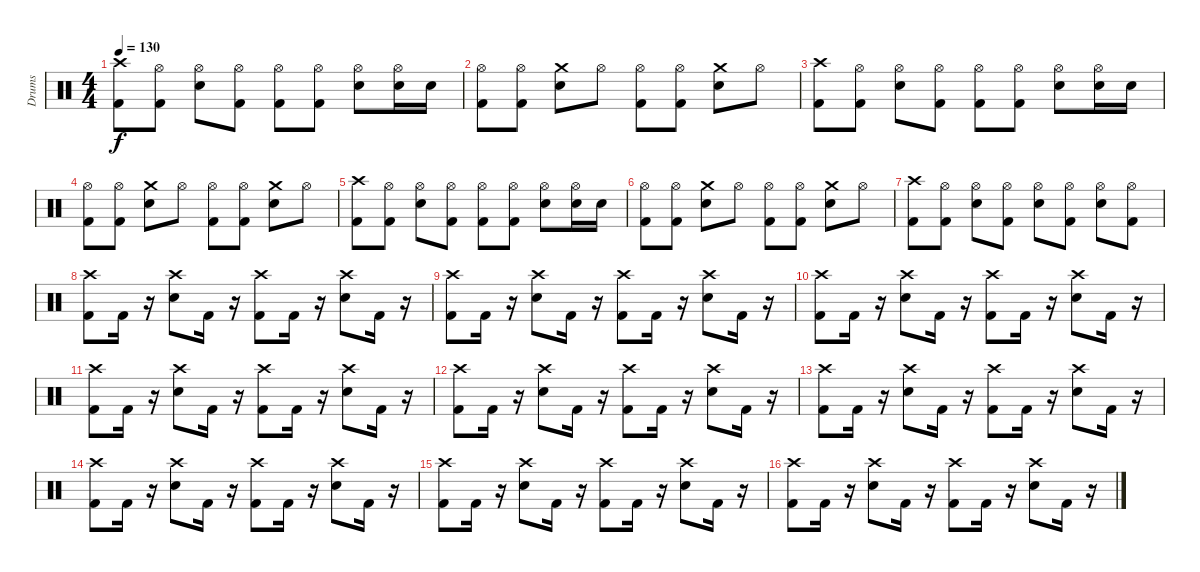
\track ("Drums" "Drums") {instrument percussion}
\staff {score}
\articulation defaults
\ts (4 4)
\tempo 130
\clef neutral
\ks c
("Kick (hit) 2" "Crash high (hit)").8{dy f} ("Kick (hit) 2" "Hi-Hat (open)").8 ("Electric Snare (hit)" "Hi-Hat (open)").8 ("Kick (hit) 2" "Hi-Hat (open)").8 ("Kick (hit) 2" "Hi-Hat (open)").8 ("Kick (hit) 2" "Hi-Hat (open)").8 ("Electric Snare (hit)" "Hi-Hat (open)").8 ("Electric Snare (hit)" "Hi-Hat (open)").16 "Electric Snare (hit)".16 |
("Kick (hit) 2" "Hi-Hat (open)").8 ("Kick (hit) 2" "Hi-Hat (open)").8 ("Electric Snare (hit)" "Crash medium (hit)").8 "Hi-Hat (open)".8 ("Kick (hit) 2" "Hi-Hat (open)").8 ("Kick (hit) 2" "Hi-Hat (open)").8 ("Electric Snare (hit)" "Crash medium (hit)").8 "Hi-Hat (open)".8 |
("Kick (hit) 2" "Crash high (hit)").8 ("Kick (hit) 2" "Hi-Hat (open)").8 ("Electric Snare (hit)" "Hi-Hat (open)").8 ("Kick (hit) 2" "Hi-Hat (open)").8 ("Kick (hit) 2" "Hi-Hat (open)").8 ("Kick (hit) 2" "Hi-Hat (open)").8 ("Electric Snare (hit)" "Hi-Hat (open)").8 ("Electric Snare (hit)" "Hi-Hat (open)").16 "Electric Snare (hit)".16 |
("Kick (hit) 2" "Hi-Hat (open)").8 ("Kick (hit) 2" "Hi-Hat (open)").8 ("Electric Snare (hit)" "Crash medium (hit)").8 "Hi-Hat (open)".8 ("Kick (hit) 2" "Hi-Hat (open)").8 ("Kick (hit) 2" "Hi-Hat (open)").8 ("Electric Snare (hit)" "Crash medium (hit)").8 "Hi-Hat (open)".8 |
("Kick (hit) 2" "Crash high (hit)").8 ("Kick (hit) 2" "Hi-Hat (open)").8 ("Electric Snare (hit)" "Hi-Hat (open)").8 ("Kick (hit) 2" "Hi-Hat (open)").8 ("Kick (hit) 2" "Hi-Hat (open)").8 ("Kick (hit) 2" "Hi-Hat (open)").8 ("Electric Snare (hit)" "Hi-Hat (open)").8 ("Electric Snare (hit)" "Hi-Hat (open)").16 "Electric Snare (hit)".16 |
("Kick (hit) 2" "Hi-Hat (open)").8 ("Kick (hit) 2" "Hi-Hat (open)").8 ("Electric Snare (hit)" "Crash medium (hit)").8 "Hi-Hat (open)".8 ("Kick (hit) 2" "Hi-Hat (open)").8 ("Kick (hit) 2" "Hi-Hat (open)").8 ("Electric Snare (hit)" "Crash medium (hit)").8 "Hi-Hat (open)".8 |
("Kick (hit) 2" "Crash high (hit)").8 ("Kick (hit) 2" "Hi-Hat (open)").8 ("Electric Snare (hit)" "Hi-Hat (open)").8 ("Kick (hit) 2" "Hi-Hat (open)").8 ("Hi-Hat (open)" "Electric Snare (hit)").8 ("Kick (hit) 2" "Hi-Hat (open)").8 ("Electric Snare (hit)" "Hi-Hat (open)").8 ("Hi-Hat (open)" "Kick (hit) 2").8 |
("Kick (hit) 2" "Crash high (hit)").8 "Kick (hit) 2".16 r.16 ("Electric Snare (hit)" "Crash high (hit)").8 "Kick (hit) 2".16 r.16 ("Kick (hit) 2" "Crash high (hit)").8 "Kick (hit) 2".16 r.16 ("Electric Snare (hit)" "Crash high (hit)").8 "Kick (hit) 2".16 r.16 |
("Kick (hit) 2" "Crash high (hit)").8 "Kick (hit) 2".16 r.16 ("Electric Snare (hit)" "Crash high (hit)").8 "Kick (hit) 2".16 r.16 ("Kick (hit) 2" "Crash high (hit)").8 "Kick (hit) 2".16 r.16 ("Electric Snare (hit)" "Crash high (hit)").8 "Kick (hit) 2".16 r.16 |
("Kick (hit) 2" "Crash high (hit)").8 "Kick (hit) 2".16 r.16 ("Electric Snare (hit)" "Crash high (hit)").8 "Kick (hit) 2".16 r.16 ("Kick (hit) 2" "Crash high (hit)").8 "Kick (hit) 2".16 r.16 ("Electric Snare (hit)" "Crash high (hit)").8 "Kick (hit) 2".16 r.16 |
("Kick (hit) 2" "Crash high (hit)").8 "Kick (hit) 2".16 r.16 ("Electric Snare (hit)" "Crash high (hit)").8 "Kick (hit) 2".16 r.16 ("Kick (hit) 2" "Crash high (hit)").8 "Kick (hit) 2".16 r.16 ("Electric Snare (hit)" "Crash high (hit)").8 "Kick (hit) 2".16 r.16 |
("Kick (hit) 2" "Crash high (hit)").8 "Kick (hit) 2".16 r.16 ("Electric Snare (hit)" "Crash high (hit)").8 "Kick (hit) 2".16 r.16 ("Kick (hit) 2" "Crash high (hit)").8 "Kick (hit) 2".16 r.16 ("Electric Snare (hit)" "Crash high (hit)").8 "Kick (hit) 2".16 r.16 |
("Kick (hit) 2" "Crash high (hit)").8 "Kick (hit) 2".16 r.16 ("Electric Snare (hit)" "Crash high (hit)").8 "Kick (hit) 2".16 r.16 ("Kick (hit) 2" "Crash high (hit)").8 "Kick (hit) 2".16 r.16 ("Electric Snare (hit)" "Crash high (hit)").8 "Kick (hit) 2".16 r.16 |
("Kick (hit) 2" "Crash high (hit)").8 "Kick (hit) 2".16 r.16 ("Electric Snare (hit)" "Crash high (hit)").8 "Kick (hit) 2".16 r.16 ("Kick (hit) 2" "Crash high (hit)").8 "Kick (hit) 2".16 r.16 ("Electric Snare (hit)" "Crash high (hit)").8 "Kick (hit) 2".16 r.16 |
("Kick (hit) 2" "Crash high (hit)").8 "Kick (hit) 2".16 r.16 ("Electric Snare (hit)" "Crash high (hit)").8 "Kick (hit) 2".16 r.16 ("Kick (hit) 2" "Crash high (hit)").8 "Kick (hit) 2".16 r.16 ("Electric Snare (hit)" "Crash high (hit)").8 "Kick (hit) 2".16 r.16 |
("Kick (hit) 2" "Crash high (hit)").8 "Kick (hit) 2".16 r.16 ("Electric Snare (hit)" "Crash high (hit)").8 "Kick (hit) 2".16 r.16 ("Kick (hit) 2" "Crash high (hit)").8 "Kick (hit) 2".16 r.16 ("Electric Snare (hit)" "Crash high (hit)").8 "Kick (hit) 2".16 r.16
